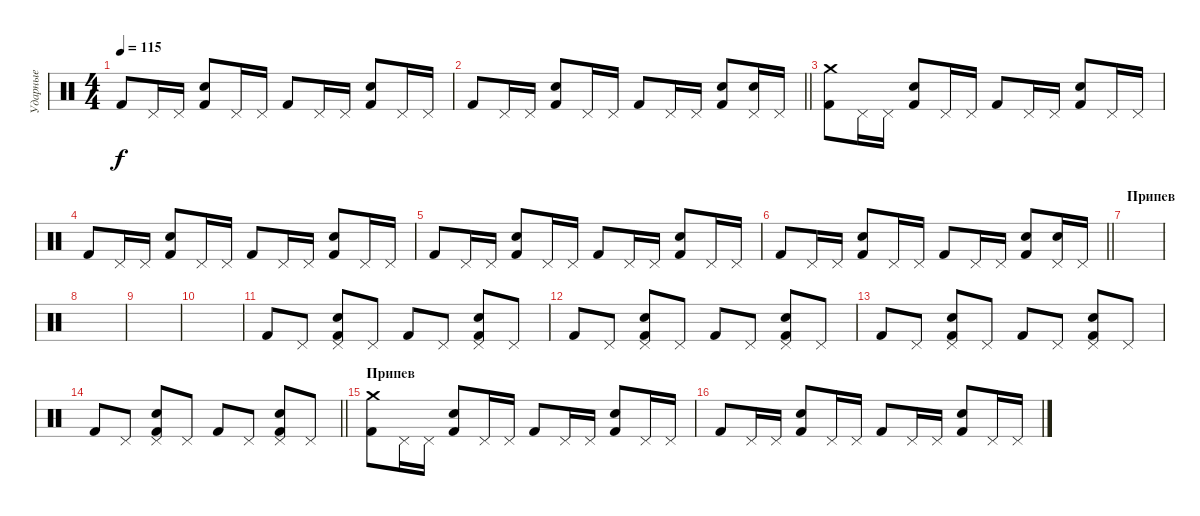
\track ("Ударные" "Ударные") {instrument percussion}
\staff {score}
\articulation defaults
\ts (4 4)
\tempo 115
\clef neutral
\ks c "Kick (hit) 2".8{dy f} "Pedal Hi-Hat (hit)".16 "Pedal Hi-Hat (hit)".16
("Kick (hit) 2" "Electric Snare (hit)").8 "Pedal Hi-Hat (hit)".16 "Pedal Hi-Hat (hit)".16 "Kick (hit) 2".8 "Pedal Hi-Hat (hit)".16 "Pedal Hi-Hat (hit)".16 ("Kick (hit) 2" "Electric Snare (hit)").8 "Pedal Hi-Hat (hit)".16 "Pedal Hi-Hat (hit)".16 |
\barLineRight lightlight "Kick (hit) 2".8 "Pedal Hi-Hat (hit)".16 "Pedal Hi-Hat (hit)".16
("Kick (hit) 2" "Electric Snare (hit)").8 "Pedal Hi-Hat (hit)".16 "Pedal Hi-Hat (hit)".16 "Kick (hit) 2".8 "Pedal Hi-Hat (hit)".16 "Pedal Hi-Hat (hit)".16 ("Kick (hit) 2" "Electric Snare (hit)").8 ("Pedal Hi-Hat (hit)" "Electric Snare (hit)").16 "Pedal Hi-Hat (hit)".16 |
("Kick (hit) 2" "Crash medium (hit)").8 "Pedal Hi-Hat (hit)".16 "Pedal Hi-Hat (hit)".16 ("Kick (hit) 2" "Electric Snare (hit)").8 "Pedal Hi-Hat (hit)".16 "Pedal Hi-Hat (hit)".16 "Kick (hit) 2".8 "Pedal Hi-Hat (hit)".16 "Pedal Hi-Hat (hit)".16 ("Kick (hit) 2" "Electric Snare (hit)").8 "Pedal Hi-Hat (hit)".16 "Pedal Hi-Hat (hit)".16 |
"Kick (hit) 2".8 "Pedal Hi-Hat (hit)".16 "Pedal Hi-Hat (hit)".16 ("Kick (hit) 2" "Electric Snare (hit)").8 "Pedal Hi-Hat (hit)".16 "Pedal Hi-Hat (hit)".16 "Kick (hit) 2".8 "Pedal Hi-Hat (hit)".16 "Pedal Hi-Hat (hit)".16 ("Kick (hit) 2" "Electric Snare (hit)").8 "Pedal Hi-Hat (hit)".16 "Pedal Hi-Hat (hit)".16 |
"Kick (hit) 2".8 "Pedal Hi-Hat (hit)".16 "Pedal Hi-Hat (hit)".16 ("Kick (hit) 2" "Electric Snare (hit)").8 "Pedal Hi-Hat (hit)".16 "Pedal Hi-Hat (hit)".16 "Kick (hit) 2".8 "Pedal Hi-Hat (hit)".16 "Pedal Hi-Hat (hit)".16 ("Kick (hit) 2" "Electric Snare (hit)").8 "Pedal Hi-Hat (hit)".16 "Pedal Hi-Hat (hit)".16 |
\barLineRight lightlight "Kick (hit) 2".8 "Pedal Hi-Hat (hit)".16 "Pedal Hi-Hat (hit)".16
("Kick (hit) 2" "Electric Snare (hit)").8 "Pedal Hi-Hat (hit)".16 "Pedal Hi-Hat (hit)".16 "Kick (hit) 2".8 "Pedal Hi-Hat (hit)".16 "Pedal Hi-Hat (hit)".16 ("Kick (hit) 2" "Electric Snare (hit)").8 ("Pedal Hi-Hat (hit)" "Electric Snare (hit)").16 "Pedal Hi-Hat (hit)".16 |
\section ("" "Припев")
|
|
|
|
"Kick (hit) 2".8 "Pedal Hi-Hat (hit)".8 ("Electric Snare (hit)" "Kick (hit) 2" "Pedal Hi-Hat (hit)").8 "Pedal Hi-Hat (hit)".8 "Kick (hit) 2".8 "Pedal Hi-Hat (hit)".8 ("Electric Snare (hit)" "Kick (hit) 2" "Pedal Hi-Hat (hit)").8 "Pedal Hi-Hat (hit)".8 |
"Kick (hit) 2".8 "Pedal Hi-Hat (hit)".8 ("Electric Snare (hit)" "Kick (hit) 2" "Pedal Hi-Hat (hit)").8 "Pedal Hi-Hat (hit)".8 "Kick (hit) 2".8 "Pedal Hi-Hat (hit)".8 ("Electric Snare (hit)" "Kick (hit) 2" "Pedal Hi-Hat (hit)").8 "Pedal Hi-Hat (hit)".8 |
"Kick (hit) 2".8 "Pedal Hi-Hat (hit)".8 ("Electric Snare (hit)" "Kick (hit) 2" "Pedal Hi-Hat (hit)").8 "Pedal Hi-Hat (hit)".8 "Kick (hit) 2".8 "Pedal Hi-Hat (hit)".8 ("Electric Snare (hit)" "Kick (hit) 2" "Pedal Hi-Hat (hit)").8 "Pedal Hi-Hat (hit)".8 |
\barLineRight lightlight "Kick (hit) 2".8 "Pedal Hi-Hat (hit)".8
("Electric Snare (hit)" "Kick (hit) 2" "Pedal Hi-Hat (hit)").8 "Pedal Hi-Hat (hit)".8 "Kick (hit) 2".8 "Pedal Hi-Hat (hit)".8 ("Electric Snare (hit)" "Kick (hit) 2" "Pedal Hi-Hat (hit)").8 "Pedal Hi-Hat (hit)".8 |
\section ("" "Припев")
("Kick (hit) 2" "Crash medium (hit)").8 "Pedal Hi-Hat (hit)".16 "Pedal Hi-Hat (hit)".16 ("Kick (hit) 2" "Electric Snare (hit)").8 "Pedal Hi-Hat (hit)".16 "Pedal Hi-Hat (hit)".16 "Kick (hit) 2".8 "Pedal Hi-Hat (hit)".16 "Pedal Hi-Hat (hit)".16 ("Kick (hit) 2" "Electric Snare (hit)").8 "Pedal Hi-Hat (hit)".16 "Pedal Hi-Hat (hit)".16 |
"Kick (hit) 2".8 "Pedal Hi-Hat (hit)".16 "Pedal Hi-Hat (hit)".16 ("Kick (hit) 2" "Electric Snare (hit)").8 "Pedal Hi-Hat (hit)".16 "Pedal Hi-Hat (hit)".16 "Kick (hit) 2".8 "Pedal Hi-Hat (hit)".16 "Pedal Hi-Hat (hit)".16 ("Kick (hit) 2" "Electric Snare (hit)").8 "Pedal Hi-Hat (hit)".16 "Pedal Hi-Hat (hit)".16
